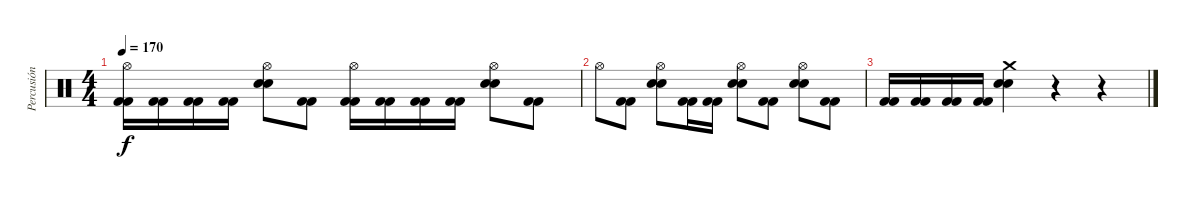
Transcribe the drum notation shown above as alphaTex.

\track ("Percusión" "Percusión") {instrument percussion}
\staff {score}
\articulation defaults
\ts (4 4)
\tempo 170
\clef neutral
\ks c
("Hi-Hat (open)" "Kick (hit) 2" "Kick (hit) 2").16{dy f} ("Kick (hit) 2" "Kick (hit) 2").16 ("Kick (hit) 2" "Kick (hit) 2").16 ("Kick (hit) 2" "Kick (hit) 2").16 ("Hi-Hat (open)" "Electric Snare (hit)" "Electric Snare (hit)").8 ("Kick (hit) 2" "Kick (hit) 2").8 ("Hi-Hat (open)" "Kick (hit) 2" "Kick (hit) 2").16 ("Kick (hit) 2" "Kick (hit) 2").16 ("Kick (hit) 2" "Kick (hit) 2").16 ("Kick (hit) 2" "Kick (hit) 2").16 ("Hi-Hat (open)" "Electric Snare (hit)" "Electric Snare (hit)").8 ("Kick (hit) 2" "Kick (hit) 2").8 |
"Hi-Hat (open)".8 ("Kick (hit) 2" "Kick (hit) 2").8 ("Hi-Hat (open)" "Electric Snare (hit)" "Electric Snare (hit)").8 ("Kick (hit) 2" "Kick (hit) 2").16 ("Kick (hit) 2" "Kick (hit) 2").16 ("Hi-Hat (open)" "Electric Snare (hit)" "Electric Snare (hit)").8 ("Kick (hit) 2" "Kick (hit) 2").8 ("Hi-Hat (open)" "Electric Snare (hit)" "Electric Snare (hit)").8 ("Kick (hit) 2" "Kick (hit) 2").8 |
("Kick (hit) 2" "Kick (hit) 2").16 ("Kick (hit) 2" "Kick (hit) 2").16 ("Kick (hit) 2" "Kick (hit) 2").16 ("Kick (hit) 2" "Kick (hit) 2").16 ("Crash medium (hit)" "Electric Snare (hit)" "Electric Snare (hit)").4 r.4 r.4
